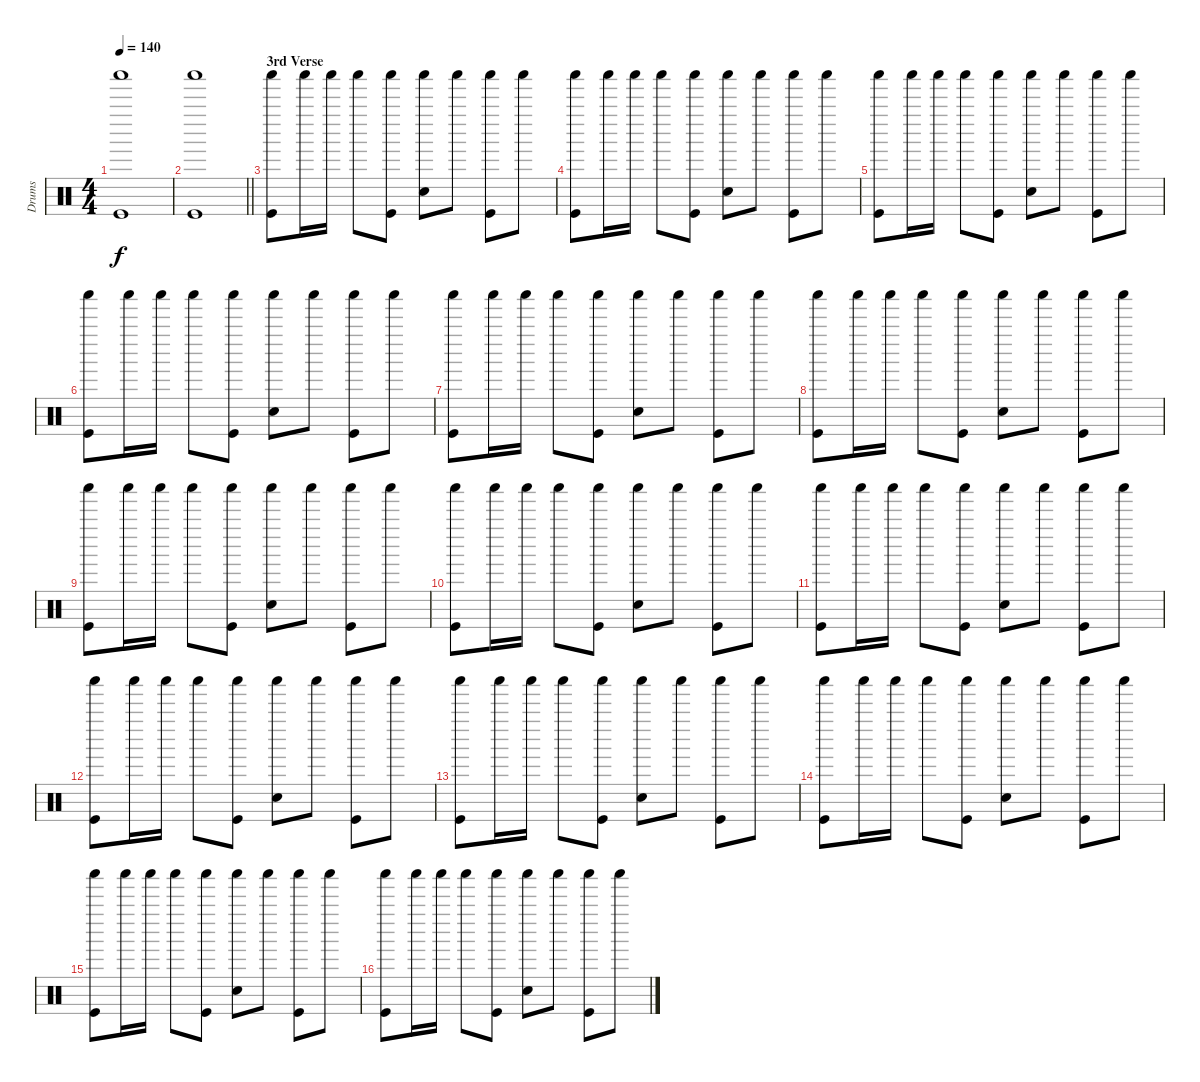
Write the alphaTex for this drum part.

\track ("Drums" "Drums") {instrument percussion}
\staff {score}
\articulation defaults
\ts (4 4)
\tempo 140
\clef neutral
\ks c
("Shaker (hit)" "Kick (hit)").1{dy f} |
\barLineRight lightlight
("Shaker (hit)" "Kick (hit)").1 |
\section ("" "3rd Verse")
("Shaker (hit)" "Kick (hit)").8 "Shaker (hit)".16 "Shaker (hit)".16 "Shaker (hit)".8 ("Shaker (hit)" "Kick (hit)").8 ("Shaker (hit)" "Hand Clap (hit)").8 "Shaker (hit)".8 ("Shaker (hit)" "Kick (hit)").8 "Shaker (hit)".8 |
("Shaker (hit)" "Kick (hit)").8 "Shaker (hit)".16 "Shaker (hit)".16 "Shaker (hit)".8 ("Shaker (hit)" "Kick (hit)").8 ("Shaker (hit)" "Hand Clap (hit)").8 "Shaker (hit)".8 ("Shaker (hit)" "Kick (hit)").8 "Shaker (hit)".8 |
("Shaker (hit)" "Kick (hit)").8 "Shaker (hit)".16 "Shaker (hit)".16 "Shaker (hit)".8 ("Shaker (hit)" "Kick (hit)").8 ("Shaker (hit)" "Hand Clap (hit)").8 "Shaker (hit)".8 ("Shaker (hit)" "Kick (hit)").8 "Shaker (hit)".8 |
("Shaker (hit)" "Kick (hit)").8 "Shaker (hit)".16 "Shaker (hit)".16 "Shaker (hit)".8 ("Shaker (hit)" "Kick (hit)").8 ("Shaker (hit)" "Hand Clap (hit)").8 "Shaker (hit)".8 ("Shaker (hit)" "Kick (hit)").8 "Shaker (hit)".8 |
("Shaker (hit)" "Kick (hit)").8 "Shaker (hit)".16 "Shaker (hit)".16 "Shaker (hit)".8 ("Shaker (hit)" "Kick (hit)").8 ("Shaker (hit)" "Hand Clap (hit)").8 "Shaker (hit)".8 ("Shaker (hit)" "Kick (hit)").8 "Shaker (hit)".8 |
("Shaker (hit)" "Kick (hit)").8 "Shaker (hit)".16 "Shaker (hit)".16 "Shaker (hit)".8 ("Shaker (hit)" "Kick (hit)").8 ("Shaker (hit)" "Hand Clap (hit)").8 "Shaker (hit)".8 ("Shaker (hit)" "Kick (hit)").8 "Shaker (hit)".8 |
("Shaker (hit)" "Kick (hit)").8 "Shaker (hit)".16 "Shaker (hit)".16 "Shaker (hit)".8 ("Shaker (hit)" "Kick (hit)").8 ("Shaker (hit)" "Hand Clap (hit)").8 "Shaker (hit)".8 ("Shaker (hit)" "Kick (hit)").8 "Shaker (hit)".8 |
("Shaker (hit)" "Kick (hit)").8 "Shaker (hit)".16 "Shaker (hit)".16 "Shaker (hit)".8 ("Shaker (hit)" "Kick (hit)").8 ("Shaker (hit)" "Hand Clap (hit)").8 "Shaker (hit)".8 ("Shaker (hit)" "Kick (hit)").8 "Shaker (hit)".8 |
("Shaker (hit)" "Kick (hit)").8 "Shaker (hit)".16 "Shaker (hit)".16 "Shaker (hit)".8 ("Shaker (hit)" "Kick (hit)").8 ("Shaker (hit)" "Hand Clap (hit)").8 "Shaker (hit)".8 ("Shaker (hit)" "Kick (hit)").8 "Shaker (hit)".8 |
("Shaker (hit)" "Kick (hit)").8 "Shaker (hit)".16 "Shaker (hit)".16 "Shaker (hit)".8 ("Shaker (hit)" "Kick (hit)").8 ("Shaker (hit)" "Hand Clap (hit)").8 "Shaker (hit)".8 ("Shaker (hit)" "Kick (hit)").8 "Shaker (hit)".8 |
("Shaker (hit)" "Kick (hit)").8 "Shaker (hit)".16 "Shaker (hit)".16 "Shaker (hit)".8 ("Shaker (hit)" "Kick (hit)").8 ("Shaker (hit)" "Hand Clap (hit)").8 "Shaker (hit)".8 ("Shaker (hit)" "Kick (hit)").8 "Shaker (hit)".8 |
("Shaker (hit)" "Kick (hit)").8 "Shaker (hit)".16 "Shaker (hit)".16 "Shaker (hit)".8 ("Shaker (hit)" "Kick (hit)").8 ("Shaker (hit)" "Hand Clap (hit)").8 "Shaker (hit)".8 ("Shaker (hit)" "Kick (hit)").8 "Shaker (hit)".8 |
("Shaker (hit)" "Kick (hit)").8 "Shaker (hit)".16 "Shaker (hit)".16 "Shaker (hit)".8 ("Shaker (hit)" "Kick (hit)").8 ("Shaker (hit)" "Hand Clap (hit)").8 "Shaker (hit)".8 ("Shaker (hit)" "Kick (hit)").8 "Shaker (hit)".8 |
("Shaker (hit)" "Kick (hit)").8 "Shaker (hit)".16 "Shaker (hit)".16 "Shaker (hit)".8 ("Shaker (hit)" "Kick (hit)").8 ("Shaker (hit)" "Hand Clap (hit)").8 "Shaker (hit)".8 ("Shaker (hit)" "Kick (hit)").8 "Shaker (hit)".8
